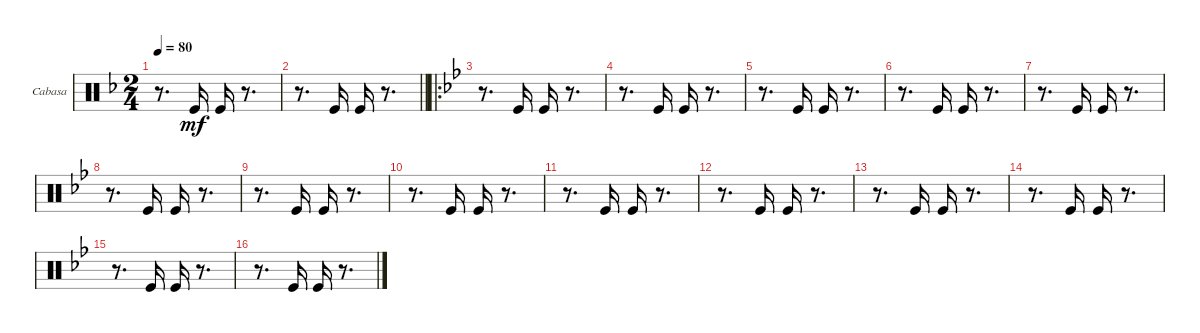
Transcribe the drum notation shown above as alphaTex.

\defaultSystemsLayout 4
\bracketExtendMode groupsimilarinstruments
\firstSystemTrackNameOrientation horizontal
\otherSystemsTrackNameOrientation horizontal
\track ("Cabasa" "Cabasa") {instrument percussion}
\staff {score}
\articulation defaults
\ts (2 4)
\tempo 80
\clef neutral
\ks f
r.8{d dy mf} "Kick (hit)".16 "Kick (hit)".16 r.8{d} |
\barLineRight lightlight
r.8{d} "Kick (hit)".16 "Kick (hit)".16 r.8{d} |
\ro
\ks bb
r.8{d} "Kick (hit)".16 "Kick (hit)".16 r.8{d} |
r.8{d} "Kick (hit)".16 "Kick (hit)".16 r.8{d} |
r.8{d} "Kick (hit)".16 "Kick (hit)".16 r.8{d} |
r.8{d} "Kick (hit)".16 "Kick (hit)".16 r.8{d} |
r.8{d} "Kick (hit)".16 "Kick (hit)".16 r.8{d} |
r.8{d} "Kick (hit)".16 "Kick (hit)".16 r.8{d} |
r.8{d} "Kick (hit)".16 "Kick (hit)".16 r.8{d} |
r.8{d} "Kick (hit)".16 "Kick (hit)".16 r.8{d} |
r.8{d} "Kick (hit)".16 "Kick (hit)".16 r.8{d} |
r.8{d} "Kick (hit)".16 "Kick (hit)".16 r.8{d} |
r.8{d} "Kick (hit)".16 "Kick (hit)".16 r.8{d} |
r.8{d} "Kick (hit)".16 "Kick (hit)".16 r.8{d} |
r.8{d} "Kick (hit)".16 "Kick (hit)".16 r.8{d} |
r.8{d} "Kick (hit)".16 "Kick (hit)".16 r.8{d}
